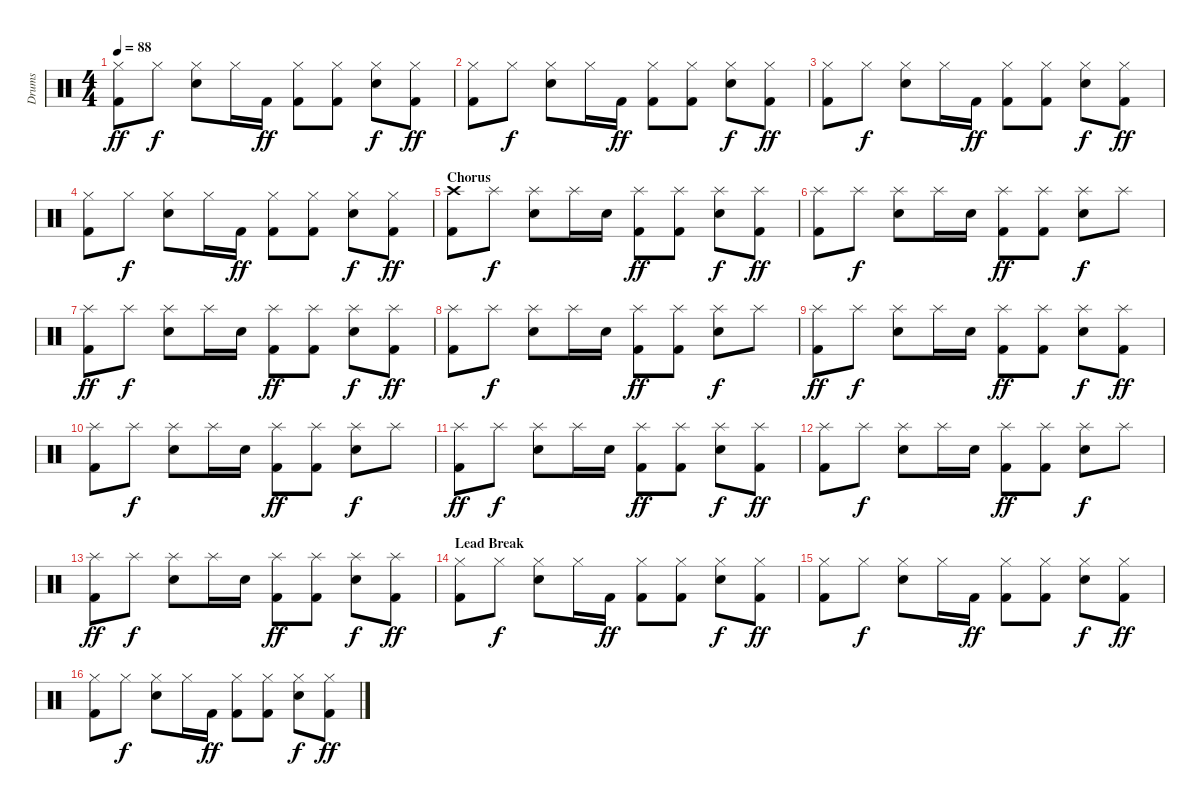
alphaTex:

\track ("Drums" "Drums") {instrument percussion}
\staff {score}
\articulation defaults
\ts (4 4)
\tempo 88
\clef neutral
\ks c
("Hi-Hat (closed)" "Kick (hit) 2").8{dy ff} "Hi-Hat (closed)".8{dy f} ("Hi-Hat (closed)" "Electric Snare (hit)").8 "Hi-Hat (closed)".16 "Kick (hit) 2".16{dy ff} ("Hi-Hat (closed)" "Kick (hit) 2").8 ("Hi-Hat (closed)" "Kick (hit) 2").8 ("Hi-Hat (closed)" "Electric Snare (hit)").8{dy f} ("Hi-Hat (closed)" "Kick (hit) 2").8{dy ff} |
("Hi-Hat (closed)" "Kick (hit) 2").8 "Hi-Hat (closed)".8{dy f} ("Hi-Hat (closed)" "Electric Snare (hit)").8 "Hi-Hat (closed)".16 "Kick (hit) 2".16{dy ff} ("Hi-Hat (closed)" "Kick (hit) 2").8 ("Hi-Hat (closed)" "Kick (hit) 2").8 ("Hi-Hat (closed)" "Electric Snare (hit)").8{dy f} ("Hi-Hat (closed)" "Kick (hit) 2").8{dy ff} |
("Hi-Hat (closed)" "Kick (hit) 2").8 "Hi-Hat (closed)".8{dy f} ("Hi-Hat (closed)" "Electric Snare (hit)").8 "Hi-Hat (closed)".16 "Kick (hit) 2".16{dy ff} ("Hi-Hat (closed)" "Kick (hit) 2").8 ("Hi-Hat (closed)" "Kick (hit) 2").8 ("Hi-Hat (closed)" "Electric Snare (hit)").8{dy f} ("Hi-Hat (closed)" "Kick (hit) 2").8{dy ff} |
("Hi-Hat (closed)" "Kick (hit) 2").8 "Hi-Hat (closed)".8{dy f} ("Hi-Hat (closed)" "Electric Snare (hit)").8 "Hi-Hat (closed)".16 "Kick (hit) 2".16{dy ff} ("Hi-Hat (closed)" "Kick (hit) 2").8 ("Hi-Hat (closed)" "Kick (hit) 2").8 ("Hi-Hat (closed)" "Electric Snare (hit)").8{dy f} ("Hi-Hat (closed)" "Kick (hit) 2").8{dy ff} |
\section ("" "Chorus")
("Crash high (hit)" "Kick (hit) 2").8 "Splash (hit)".8{dy f} ("Splash (hit)" "Electric Snare (hit)").8 "Splash (hit)".16 "Electric Snare (hit)".16 ("Splash (hit)" "Kick (hit) 2").8{dy ff} ("Splash (hit)" "Kick (hit) 2").8 ("Splash (hit)" "Electric Snare (hit)").8{dy f} ("Splash (hit)" "Kick (hit) 2").8{dy ff} |
("Splash (hit)" "Kick (hit) 2").8 "Splash (hit)".8{dy f} ("Splash (hit)" "Electric Snare (hit)").8 "Splash (hit)".16 "Electric Snare (hit)".16 ("Splash (hit)" "Kick (hit) 2").8{dy ff} ("Splash (hit)" "Kick (hit) 2").8 ("Splash (hit)" "Electric Snare (hit)").8{dy f} "Splash (hit)".8 |
("Splash (hit)" "Kick (hit) 2").8{dy ff} "Splash (hit)".8{dy f} ("Splash (hit)" "Electric Snare (hit)").8 "Splash (hit)".16 "Electric Snare (hit)".16 ("Splash (hit)" "Kick (hit) 2").8{dy ff} ("Splash (hit)" "Kick (hit) 2").8 ("Splash (hit)" "Electric Snare (hit)").8{dy f} ("Splash (hit)" "Kick (hit) 2").8{dy ff} |
("Splash (hit)" "Kick (hit) 2").8 "Splash (hit)".8{dy f} ("Splash (hit)" "Electric Snare (hit)").8 "Splash (hit)".16 "Electric Snare (hit)".16 ("Splash (hit)" "Kick (hit) 2").8{dy ff} ("Splash (hit)" "Kick (hit) 2").8 ("Splash (hit)" "Electric Snare (hit)").8{dy f} "Splash (hit)".8 |
("Splash (hit)" "Kick (hit) 2").8{dy ff} "Splash (hit)".8{dy f} ("Splash (hit)" "Electric Snare (hit)").8 "Splash (hit)".16 "Electric Snare (hit)".16 ("Splash (hit)" "Kick (hit) 2").8{dy ff} ("Splash (hit)" "Kick (hit) 2").8 ("Splash (hit)" "Electric Snare (hit)").8{dy f} ("Splash (hit)" "Kick (hit) 2").8{dy ff} |
("Splash (hit)" "Kick (hit) 2").8 "Splash (hit)".8{dy f} ("Splash (hit)" "Electric Snare (hit)").8 "Splash (hit)".16 "Electric Snare (hit)".16 ("Splash (hit)" "Kick (hit) 2").8{dy ff} ("Splash (hit)" "Kick (hit) 2").8 ("Splash (hit)" "Electric Snare (hit)").8{dy f} "Splash (hit)".8 |
("Splash (hit)" "Kick (hit) 2").8{dy ff} "Splash (hit)".8{dy f} ("Splash (hit)" "Electric Snare (hit)").8 "Splash (hit)".16 "Electric Snare (hit)".16 ("Splash (hit)" "Kick (hit) 2").8{dy ff} ("Splash (hit)" "Kick (hit) 2").8 ("Splash (hit)" "Electric Snare (hit)").8{dy f} ("Splash (hit)" "Kick (hit) 2").8{dy ff} |
("Splash (hit)" "Kick (hit) 2").8 "Splash (hit)".8{dy f} ("Splash (hit)" "Electric Snare (hit)").8 "Splash (hit)".16 "Electric Snare (hit)".16 ("Splash (hit)" "Kick (hit) 2").8{dy ff} ("Splash (hit)" "Kick (hit) 2").8 ("Splash (hit)" "Electric Snare (hit)").8{dy f} "Splash (hit)".8 |
("Splash (hit)" "Kick (hit) 2").8{dy ff} "Splash (hit)".8{dy f} ("Splash (hit)" "Electric Snare (hit)").8 "Splash (hit)".16 "Electric Snare (hit)".16 ("Splash (hit)" "Kick (hit) 2").8{dy ff} ("Splash (hit)" "Kick (hit) 2").8 ("Splash (hit)" "Electric Snare (hit)").8{dy f} ("Splash (hit)" "Kick (hit) 2").8{dy ff} |
\section ("" "Lead Break")
("Hi-Hat (closed)" "Kick (hit) 2").8 "Hi-Hat (closed)".8{dy f} ("Hi-Hat (closed)" "Electric Snare (hit)").8 "Hi-Hat (closed)".16 "Kick (hit) 2".16{dy ff} ("Hi-Hat (closed)" "Kick (hit) 2").8 ("Hi-Hat (closed)" "Kick (hit) 2").8 ("Hi-Hat (closed)" "Electric Snare (hit)").8{dy f} ("Hi-Hat (closed)" "Kick (hit) 2").8{dy ff} |
("Hi-Hat (closed)" "Kick (hit) 2").8 "Hi-Hat (closed)".8{dy f} ("Hi-Hat (closed)" "Electric Snare (hit)").8 "Hi-Hat (closed)".16 "Kick (hit) 2".16{dy ff} ("Hi-Hat (closed)" "Kick (hit) 2").8 ("Hi-Hat (closed)" "Kick (hit) 2").8 ("Hi-Hat (closed)" "Electric Snare (hit)").8{dy f} ("Hi-Hat (closed)" "Kick (hit) 2").8{dy ff} |
("Hi-Hat (closed)" "Kick (hit) 2").8 "Hi-Hat (closed)".8{dy f} ("Hi-Hat (closed)" "Electric Snare (hit)").8 "Hi-Hat (closed)".16 "Kick (hit) 2".16{dy ff} ("Hi-Hat (closed)" "Kick (hit) 2").8 ("Hi-Hat (closed)" "Kick (hit) 2").8 ("Hi-Hat (closed)" "Electric Snare (hit)").8{dy f} ("Hi-Hat (closed)" "Kick (hit) 2").8{dy ff}
